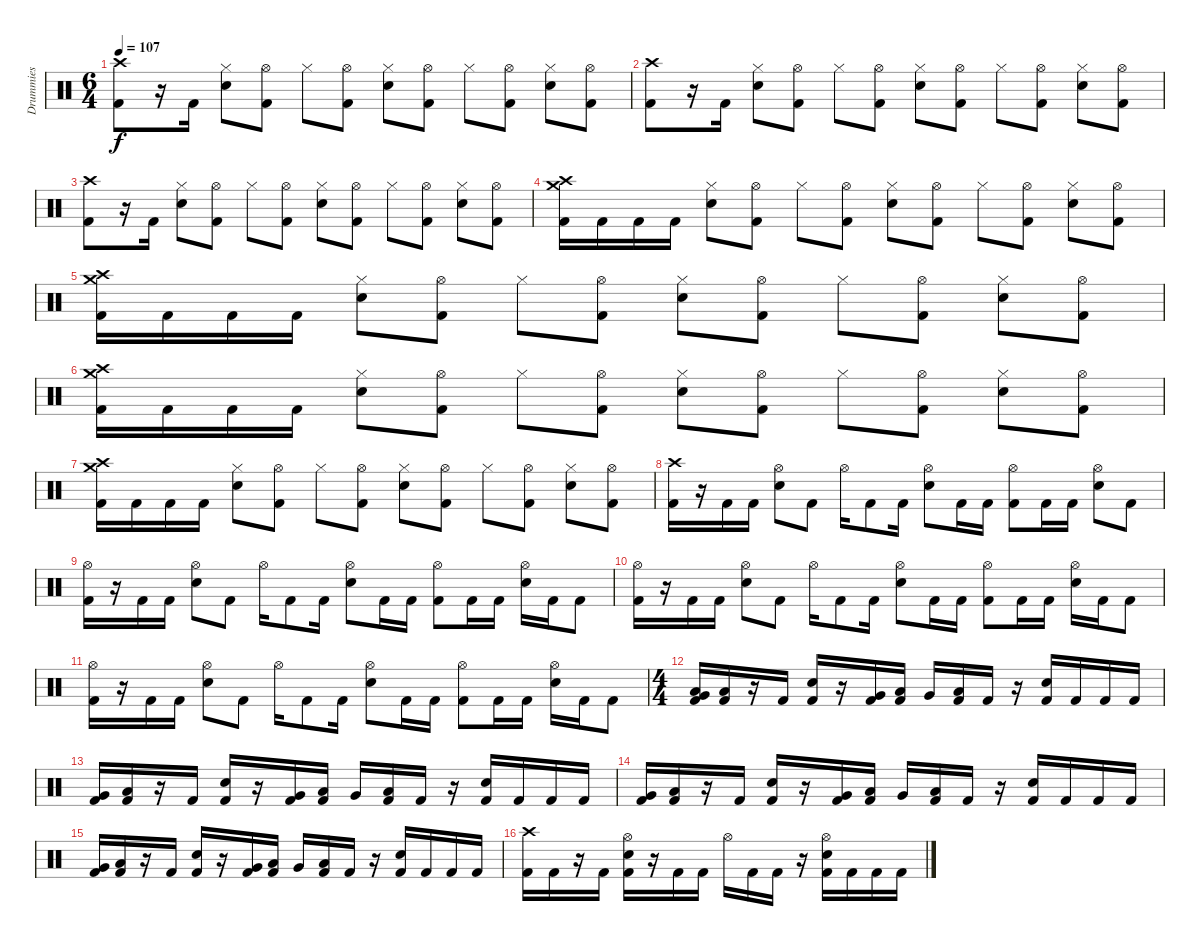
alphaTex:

\track ("Drummies" "Drummies") {instrument percussion}
\staff {score}
\articulation defaults
\ts (6 4)
\tempo 107
\clef neutral
\ks c
("Crash high (hit)" "Kick (hit) 2").8{dy f} r.16 "Kick (hit) 2".16 ("Hi-Hat (closed)" "Electric Snare (hit)").8 ("Hi-Hat (open)" "Kick (hit) 2").8 "Hi-Hat (closed)".8 ("Hi-Hat (open)" "Kick (hit) 2").8 ("Hi-Hat (closed)" "Electric Snare (hit)").8 ("Hi-Hat (open)" "Kick (hit) 2").8 "Hi-Hat (closed)".8 ("Hi-Hat (open)" "Kick (hit) 2").8 ("Hi-Hat (closed)" "Electric Snare (hit)").8 ("Hi-Hat (open)" "Kick (hit) 2").8 |
("Crash high (hit)" "Kick (hit) 2").8 r.16 "Kick (hit) 2".16 ("Hi-Hat (closed)" "Electric Snare (hit)").8 ("Hi-Hat (open)" "Kick (hit) 2").8 "Hi-Hat (closed)".8 ("Hi-Hat (open)" "Kick (hit) 2").8 ("Hi-Hat (closed)" "Electric Snare (hit)").8 ("Hi-Hat (open)" "Kick (hit) 2").8 "Hi-Hat (closed)".8 ("Hi-Hat (open)" "Kick (hit) 2").8 ("Hi-Hat (closed)" "Electric Snare (hit)").8 ("Hi-Hat (open)" "Kick (hit) 2").8 |
("Crash high (hit)" "Kick (hit) 2").8 r.16 "Kick (hit) 2".16 ("Hi-Hat (closed)" "Electric Snare (hit)").8 ("Hi-Hat (open)" "Kick (hit) 2").8 "Hi-Hat (closed)".8 ("Hi-Hat (open)" "Kick (hit) 2").8 ("Hi-Hat (closed)" "Electric Snare (hit)").8 ("Hi-Hat (open)" "Kick (hit) 2").8 "Hi-Hat (closed)".8 ("Hi-Hat (open)" "Kick (hit) 2").8 ("Hi-Hat (closed)" "Electric Snare (hit)").8 ("Hi-Hat (open)" "Kick (hit) 2").8 |
("Crash medium (hit)" "Crash high (hit)" "Kick (hit) 2").16 "Kick (hit) 2".16 "Kick (hit) 2".16 "Kick (hit) 2".16 ("Hi-Hat (closed)" "Electric Snare (hit)").8 ("Hi-Hat (open)" "Kick (hit) 2").8 "Hi-Hat (closed)".8 ("Hi-Hat (open)" "Kick (hit) 2").8 ("Hi-Hat (closed)" "Electric Snare (hit)").8 ("Hi-Hat (open)" "Kick (hit) 2").8 "Hi-Hat (closed)".8 ("Hi-Hat (open)" "Kick (hit) 2").8 ("Hi-Hat (closed)" "Electric Snare (hit)").8 ("Hi-Hat (open)" "Kick (hit) 2").8 |
("Crash medium (hit)" "Crash high (hit)" "Kick (hit) 2").16 "Kick (hit) 2".16 "Kick (hit) 2".16 "Kick (hit) 2".16 ("Hi-Hat (closed)" "Electric Snare (hit)").8 ("Hi-Hat (open)" "Kick (hit) 2").8 "Hi-Hat (closed)".8 ("Hi-Hat (open)" "Kick (hit) 2").8 ("Hi-Hat (closed)" "Electric Snare (hit)").8 ("Hi-Hat (open)" "Kick (hit) 2").8 "Hi-Hat (closed)".8 ("Hi-Hat (open)" "Kick (hit) 2").8 ("Hi-Hat (closed)" "Electric Snare (hit)").8 ("Hi-Hat (open)" "Kick (hit) 2").8 |
("Crash medium (hit)" "Crash high (hit)" "Kick (hit) 2").16 "Kick (hit) 2".16 "Kick (hit) 2".16 "Kick (hit) 2".16 ("Hi-Hat (closed)" "Electric Snare (hit)").8 ("Hi-Hat (open)" "Kick (hit) 2").8 "Hi-Hat (closed)".8 ("Hi-Hat (open)" "Kick (hit) 2").8 ("Hi-Hat (closed)" "Electric Snare (hit)").8 ("Hi-Hat (open)" "Kick (hit) 2").8 "Hi-Hat (closed)".8 ("Hi-Hat (open)" "Kick (hit) 2").8 ("Hi-Hat (closed)" "Electric Snare (hit)").8 ("Hi-Hat (open)" "Kick (hit) 2").8 |
("Crash medium (hit)" "Crash high (hit)" "Kick (hit) 2").16 "Kick (hit) 2".16 "Kick (hit) 2".16 "Kick (hit) 2".16 ("Hi-Hat (closed)" "Electric Snare (hit)").8 ("Hi-Hat (open)" "Kick (hit) 2").8 "Hi-Hat (closed)".8 ("Hi-Hat (open)" "Kick (hit) 2").8 ("Hi-Hat (closed)" "Electric Snare (hit)").8 ("Hi-Hat (open)" "Kick (hit) 2").8 "Hi-Hat (closed)".8 ("Hi-Hat (open)" "Kick (hit) 2").8 ("Hi-Hat (closed)" "Electric Snare (hit)").8 ("Hi-Hat (open)" "Kick (hit) 2").8 |
("Crash high (hit)" "Kick (hit) 2").16 r.16 "Kick (hit) 2".16 "Kick (hit) 2".16 ("Hi-Hat (open)" "Electric Snare (hit)").8 "Kick (hit) 2".8 "Hi-Hat (open)".16 "Kick (hit) 2".8 "Kick (hit) 2".16 ("Hi-Hat (open)" "Electric Snare (hit)").8 "Kick (hit) 2".16 "Kick (hit) 2".16 ("Hi-Hat (open)" "Kick (hit) 2").8 "Kick (hit) 2".16 "Kick (hit) 2".16 ("Hi-Hat (open)" "Electric Snare (hit)").8 "Kick (hit) 2".8 |
("Hi-Hat (open)" "Kick (hit) 2").16 r.16 "Kick (hit) 2".16 "Kick (hit) 2".16 ("Hi-Hat (open)" "Electric Snare (hit)").8 "Kick (hit) 2".8 "Hi-Hat (open)".16 "Kick (hit) 2".8 "Kick (hit) 2".16 ("Hi-Hat (open)" "Electric Snare (hit)").8 "Kick (hit) 2".16 "Kick (hit) 2".16 ("Hi-Hat (open)" "Kick (hit) 2").8 "Kick (hit) 2".16 "Kick (hit) 2".16 ("Hi-Hat (open)" "Electric Snare (hit)").16 "Kick (hit) 2".16 "Kick (hit) 2".8 |
("Hi-Hat (open)" "Kick (hit) 2").16 r.16 "Kick (hit) 2".16 "Kick (hit) 2".16 ("Hi-Hat (open)" "Electric Snare (hit)").8 "Kick (hit) 2".8 "Hi-Hat (open)".16 "Kick (hit) 2".8 "Kick (hit) 2".16 ("Hi-Hat (open)" "Electric Snare (hit)").8 "Kick (hit) 2".16 "Kick (hit) 2".16 ("Hi-Hat (open)" "Kick (hit) 2").8 "Kick (hit) 2".16 "Kick (hit) 2".16 ("Hi-Hat (open)" "Electric Snare (hit)").16 "Kick (hit) 2".16 "Kick (hit) 2".8 |
("Hi-Hat (open)" "Kick (hit) 2").16 r.16 "Kick (hit) 2".16 "Kick (hit) 2".16 ("Hi-Hat (open)" "Electric Snare (hit)").8 "Kick (hit) 2".8 "Hi-Hat (open)".16 "Kick (hit) 2".8 "Kick (hit) 2".16 ("Hi-Hat (open)" "Electric Snare (hit)").8 "Kick (hit) 2".16 "Kick (hit) 2".16 ("Hi-Hat (open)" "Kick (hit) 2").8 "Kick (hit) 2".16 "Kick (hit) 2".16 ("Hi-Hat (open)" "Electric Snare (hit)").16 "Kick (hit) 2".16 "Kick (hit) 2".8 |
\ts (4 4)
("Very Low Tom (hit)" "Low Tom (hit)" "Kick (hit) 2").16 ("Low Tom (hit)" "Kick (hit) 2").16 r.16 "Kick (hit) 2".16 ("Electric Snare (hit)" "Kick (hit) 2").16 r.16 ("Very Low Tom (hit)" "Kick (hit) 2").16 ("Low Tom (hit)" "Kick (hit) 2").16 "Very Low Tom (hit)".16 ("Low Floor Tom (hit)" "Kick (hit) 2").16 "Kick (hit) 2".16 r.16 ("Electric Snare (hit)" "Kick (hit) 2").16 "Kick (hit) 2".16 "Kick (hit) 2".16 "Kick (hit) 2".16 |
("Very Low Tom (hit)" "Kick (hit) 2").16 ("Low Tom (hit)" "Kick (hit) 2").16 r.16 "Kick (hit) 2".16 ("Electric Snare (hit)" "Kick (hit) 2").16 r.16 ("Very Low Tom (hit)" "Kick (hit) 2").16 ("Low Tom (hit)" "Kick (hit) 2").16 "Very Low Tom (hit)".16 ("Low Floor Tom (hit)" "Kick (hit) 2").16 "Kick (hit) 2".16 r.16 ("Electric Snare (hit)" "Kick (hit) 2").16 "Kick (hit) 2".16 "Kick (hit) 2".16 "Kick (hit) 2".16 |
("Very Low Tom (hit)" "Kick (hit) 2").16 ("Low Tom (hit)" "Kick (hit) 2").16 r.16 "Kick (hit) 2".16 ("Electric Snare (hit)" "Kick (hit) 2").16 r.16 ("Very Low Tom (hit)" "Kick (hit) 2").16 ("Low Tom (hit)" "Kick (hit) 2").16 "Very Low Tom (hit)".16 ("Low Floor Tom (hit)" "Kick (hit) 2").16 "Kick (hit) 2".16 r.16 ("Electric Snare (hit)" "Kick (hit) 2").16 "Kick (hit) 2".16 "Kick (hit) 2".16 "Kick (hit) 2".16 |
("Very Low Tom (hit)" "Kick (hit) 2").16 ("Low Tom (hit)" "Kick (hit) 2").16 r.16 "Kick (hit) 2".16 ("Electric Snare (hit)" "Kick (hit) 2").16 r.16 ("Very Low Tom (hit)" "Kick (hit) 2").16 ("Low Tom (hit)" "Kick (hit) 2").16 "Very Low Tom (hit)".16 ("Low Floor Tom (hit)" "Kick (hit) 2").16 "Kick (hit) 2".16 r.16 ("Electric Snare (hit)" "Kick (hit) 2").16 "Kick (hit) 2".16 "Kick (hit) 2".16 "Kick (hit) 2".16 |
("Crash high (hit)" "Kick (hit) 2").16 "Kick (hit) 2".16 r.16 "Kick (hit) 2".16 ("Hi-Hat (open)" "Electric Snare (hit)" "Kick (hit) 2").16 r.16 "Kick (hit) 2".16 "Kick (hit) 2".16 "Hi-Hat (open)".16 "Kick (hit) 2".16 "Kick (hit) 2".16 r.16 ("Hi-Hat (open)" "Electric Snare (hit)" "Kick (hit) 2").16 "Kick (hit) 2".16 "Kick (hit) 2".16 "Kick (hit) 2".16
